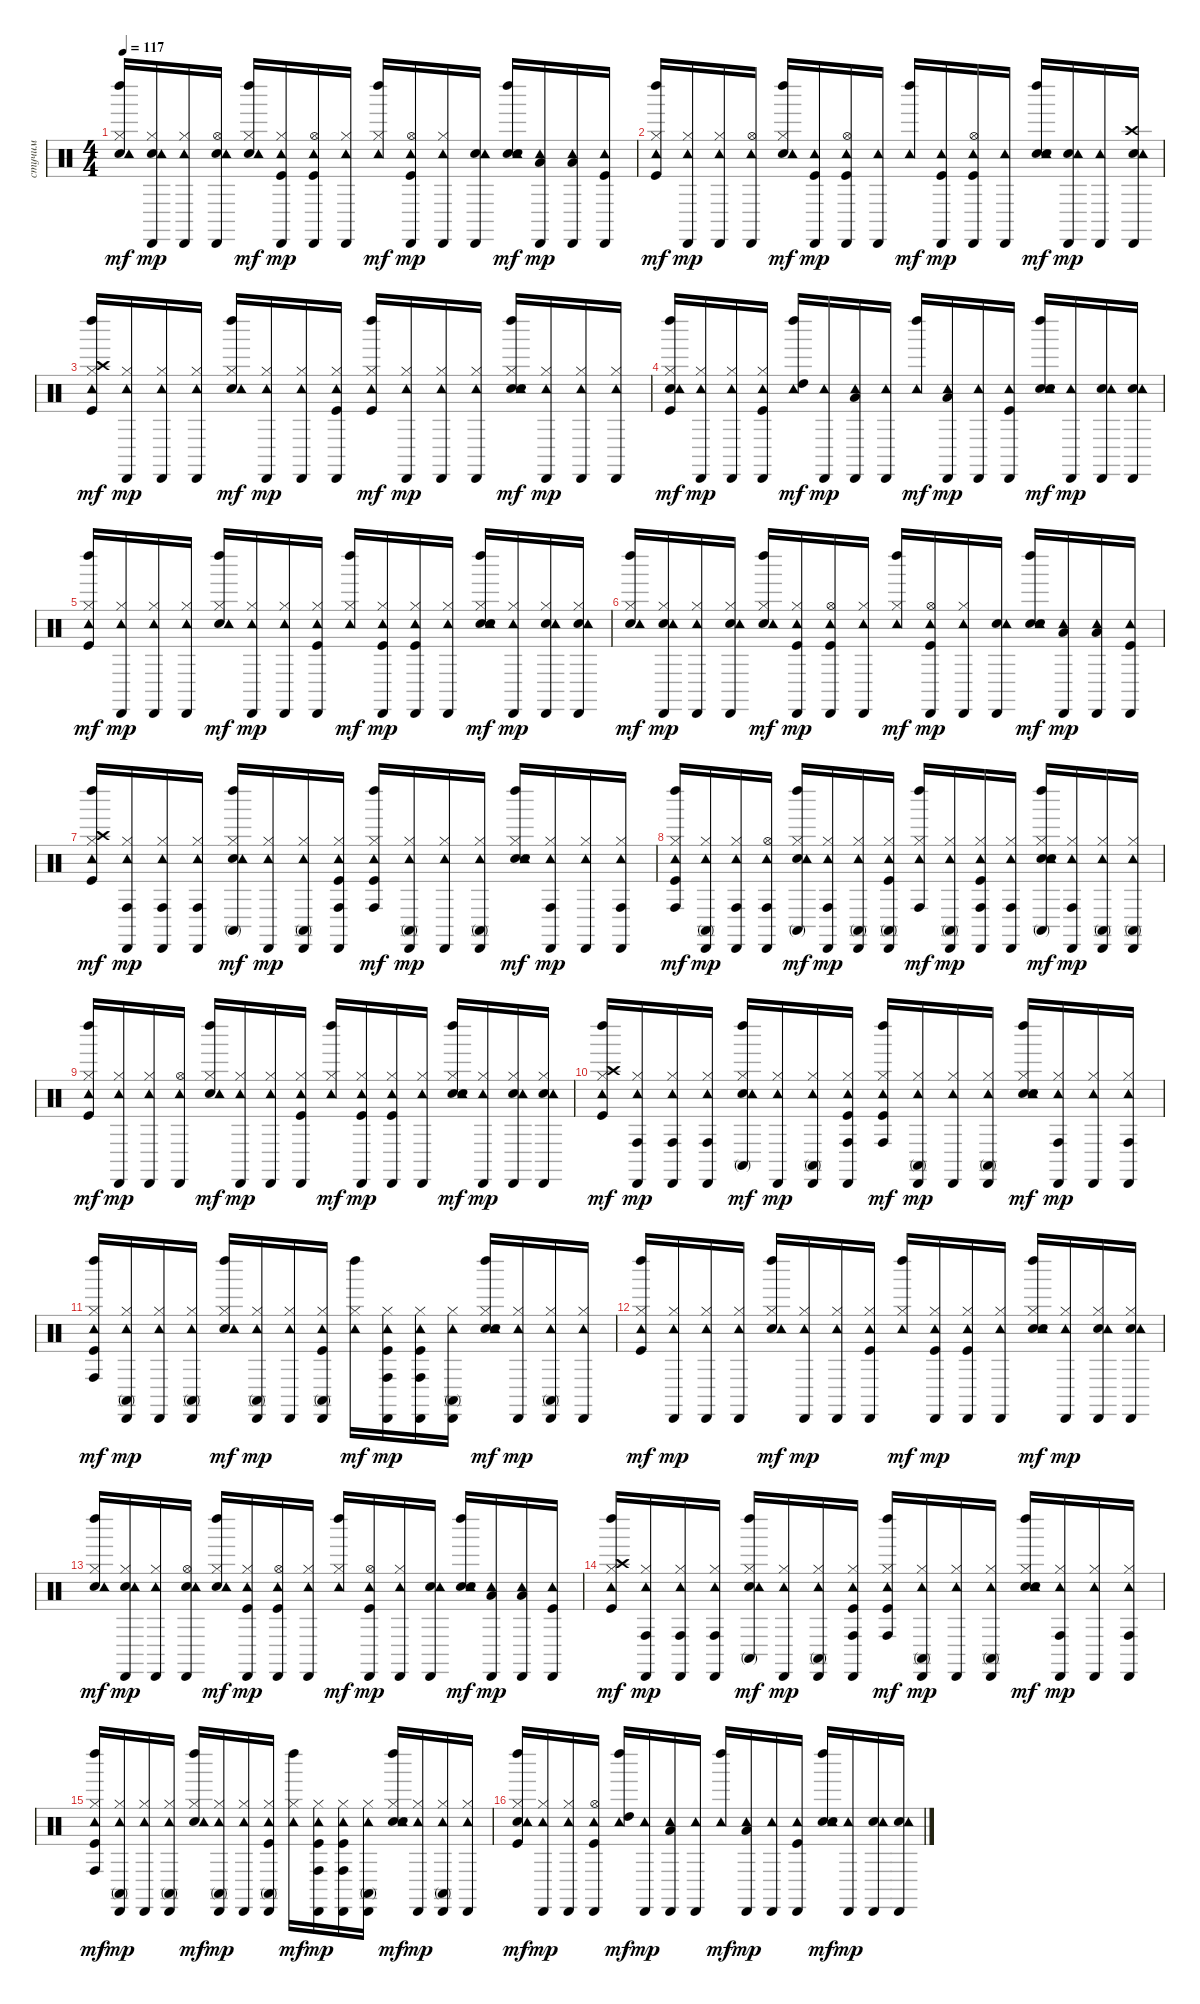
\track ("стучим" "стучим") {instrument percussion}
\staff {score}
\articulation defaults
\ts (4 4)
\tempo 117
\clef neutral
\ks c
("Snare (hit) 2" "Hi-Hat (closed)" "Tambourine (hit)" "Left Maraca (hit)").16{dy mf} ("Snare (hit) 2" "Hi-Hat (closed)" "Tambourine (hit)" "Cabasa (hit)").16{dy mp} ("Hi-Hat (closed)" "Tambourine (hit)" "Cabasa (hit)").16 ("Snare (hit) 2" "Hi-Hat (open)" "Tambourine (hit)" "Cabasa (hit)").16 ("Snare (hit) 2" "Hi-Hat (closed)" "Tambourine (hit)" "Left Maraca (hit)").16{dy mf} ("Kick (hit)" "Hi-Hat (closed)" "Tambourine (hit)" "Cabasa (hit)").16{dy mp} ("Kick (hit)" "Hi-Hat (open)" "Tambourine (hit)" "Cabasa (hit)").16 ("Hi-Hat (closed)" "Tambourine (hit)" "Cabasa (hit)").16 ("Hi-Hat (closed)" "Tambourine (hit)" "Left Maraca (hit)").16{dy mf} ("Kick (hit)" "Hi-Hat (open)" "Tambourine (hit)" "Cabasa (hit)").16{dy mp} ("Hi-Hat (closed)" "Tambourine (hit)" "Cabasa (hit)").16 ("Snare (hit) 2" "Tambourine (hit)" "Cabasa (hit)").16 ("Snare (hit) 2" "Tambourine (hit)" "Hand Clap (hit)" "Left Maraca (hit)").16{dy mf} ("Low Floor Tom (hit)" "Tambourine (hit)" "Cabasa (hit)").16{dy mp} ("Low Floor Tom (hit)" "Tambourine (hit)" "Cabasa (hit)").16 ("Kick (hit)" "Tambourine (hit)" "Cabasa (hit)").16 |
("Kick (hit)" "Hi-Hat (closed)" "Tambourine (hit)" "Left Maraca (hit)").16{dy mf} ("Hi-Hat (closed)" "Tambourine (hit)" "Cabasa (hit)").16{dy mp} ("Hi-Hat (closed)" "Tambourine (hit)" "Cabasa (hit)").16 ("Hi-Hat (open)" "Tambourine (hit)" "Cabasa (hit)").16 ("Snare (hit) 2" "Hi-Hat (closed)" "Tambourine (hit)" "Left Maraca (hit)").16{dy mf} ("Kick (hit)" "Tambourine (hit)" "Cabasa (hit)").16{dy mp} ("Kick (hit)" "Hi-Hat (open)" "Tambourine (hit)" "Cabasa (hit)").16 ("Tambourine (hit)" "Cabasa (hit)").16 ("Tambourine (hit)" "Left Maraca (hit)").16{dy mf} ("Kick (hit)" "Tambourine (hit)" "Cabasa (hit)").16{dy mp} ("Kick (hit)" "Hi-Hat (open)" "Tambourine (hit)" "Cabasa (hit)").16 ("Tambourine (hit)" "Cabasa (hit)").16 ("Snare (hit) 2" "Tambourine (hit)" "Hand Clap (hit)" "Left Maraca (hit)").16{dy mf} ("Snare (hit) 2" "Tambourine (hit)" "Cabasa (hit)").16{dy mp} ("Tambourine (hit)" "Cabasa (hit)").16 ("Snare (hit) 2" "Crash high (hit)" "Tambourine (hit)" "Cabasa (hit)").16 |
("Kick (hit)" "Hi-Hat (closed)" "Crash high (hit)" "Tambourine (hit)" "Left Maraca (hit)").16{dy mf} ("Hi-Hat (closed)" "Tambourine (hit)" "Cabasa (hit)").16{dy mp} ("Hi-Hat (closed)" "Tambourine (hit)" "Cabasa (hit)").16 ("Hi-Hat (closed)" "Tambourine (hit)" "Cabasa (hit)").16 ("Snare (hit) 2" "Hi-Hat (closed)" "Tambourine (hit)" "Left Maraca (hit)").16{dy mf} ("Hi-Hat (closed)" "Tambourine (hit)" "Cabasa (hit)").16{dy mp} ("Hi-Hat (closed)" "Tambourine (hit)" "Cabasa (hit)").16 ("Kick (hit)" "Hi-Hat (closed)" "Tambourine (hit)" "Cabasa (hit)").16 ("Kick (hit)" "Hi-Hat (closed)" "Tambourine (hit)" "Left Maraca (hit)").16{dy mf} ("Hi-Hat (closed)" "Tambourine (hit)" "Cabasa (hit)").16{dy mp} ("Hi-Hat (closed)" "Tambourine (hit)" "Cabasa (hit)").16 ("Hi-Hat (closed)" "Tambourine (hit)" "Cabasa (hit)").16 ("Snare (hit) 2" "Hi-Hat (closed)" "Tambourine (hit)" "Hand Clap (hit)" "Left Maraca (hit)").16{dy mf} ("Hi-Hat (closed)" "Tambourine (hit)" "Cabasa (hit)").16{dy mp} ("Hi-Hat (closed)" "Tambourine (hit)" "Cabasa (hit)").16 ("Hi-Hat (closed)" "Tambourine (hit)" "Cabasa (hit)").16 |
("Kick (hit)" "Snare (hit) 2" "Hi-Hat (closed)" "Tambourine (hit)" "Left Maraca (hit)").16{dy mf} ("Hi-Hat (closed)" "Tambourine (hit)" "Cabasa (hit)").16{dy mp} ("Hi-Hat (closed)" "Tambourine (hit)" "Cabasa (hit)").16 ("Kick (hit)" "Hi-Hat (closed)" "Tambourine (hit)" "Cabasa (hit)").16 ("High Tom (hit)" "Tambourine (hit)" "Left Maraca (hit)").16{dy mf} ("Tambourine (hit)" "Cabasa (hit)").16{dy mp} ("Low Tom (hit)" "Tambourine (hit)" "Cabasa (hit)").16 ("Tambourine (hit)" "Cabasa (hit)").16 ("Tambourine (hit)" "Left Maraca (hit)").16{dy mf} ("Low Floor Tom (hit)" "Tambourine (hit)" "Cabasa (hit)").16{dy mp} ("Tambourine (hit)" "Cabasa (hit)").16 ("Kick (hit)" "Tambourine (hit)" "Cabasa (hit)").16 ("Snare (hit) 2" "Tambourine (hit)" "Hand Clap (hit)" "Left Maraca (hit)").16{dy mf} ("Tambourine (hit)" "Cabasa (hit)").16{dy mp} ("Snare (hit) 2" "Tambourine (hit)" "Cabasa (hit)").16 ("Snare (hit) 2" "Tambourine (hit)" "Cabasa (hit)").16 |
("Kick (hit)" "Hi-Hat (closed)" "Tambourine (hit)" "Left Maraca (hit)").16{dy mf} ("Hi-Hat (closed)" "Tambourine (hit)" "Cabasa (hit)").16{dy mp} ("Hi-Hat (closed)" "Tambourine (hit)" "Cabasa (hit)").16 ("Hi-Hat (closed)" "Tambourine (hit)" "Cabasa (hit)").16 ("Snare (hit) 2" "Hi-Hat (closed)" "Tambourine (hit)" "Left Maraca (hit)").16{dy mf} ("Hi-Hat (closed)" "Tambourine (hit)" "Cabasa (hit)").16{dy mp} ("Hi-Hat (closed)" "Tambourine (hit)" "Cabasa (hit)").16 ("Kick (hit)" "Hi-Hat (closed)" "Tambourine (hit)" "Cabasa (hit)").16 ("Hi-Hat (closed)" "Tambourine (hit)" "Left Maraca (hit)").16{dy mf} ("Kick (hit)" "Hi-Hat (closed)" "Tambourine (hit)" "Cabasa (hit)").16{dy mp} ("Kick (hit)" "Hi-Hat (closed)" "Tambourine (hit)" "Cabasa (hit)").16 ("Hi-Hat (closed)" "Tambourine (hit)" "Cabasa (hit)").16 ("Snare (hit) 2" "Hi-Hat (closed)" "Tambourine (hit)" "Hand Clap (hit)" "Left Maraca (hit)").16{dy mf} ("Hi-Hat (closed)" "Tambourine (hit)" "Cabasa (hit)").16{dy mp} ("Snare (hit) 2" "Hi-Hat (closed)" "Tambourine (hit)" "Cabasa (hit)").16 ("Snare (hit) 2" "Hi-Hat (closed)" "Tambourine (hit)" "Cabasa (hit)").16 |
("Snare (hit) 2" "Hi-Hat (closed)" "Tambourine (hit)" "Left Maraca (hit)").16{dy mf} ("Snare (hit) 2" "Hi-Hat (closed)" "Tambourine (hit)" "Cabasa (hit)").16{dy mp} ("Hi-Hat (closed)" "Tambourine (hit)" "Cabasa (hit)").16 ("Snare (hit) 2" "Hi-Hat (closed)" "Tambourine (hit)" "Cabasa (hit)").16 ("Snare (hit) 2" "Hi-Hat (closed)" "Tambourine (hit)" "Left Maraca (hit)").16{dy mf} ("Kick (hit)" "Hi-Hat (closed)" "Tambourine (hit)" "Cabasa (hit)").16{dy mp} ("Kick (hit)" "Hi-Hat (open)" "Tambourine (hit)" "Cabasa (hit)").16 ("Hi-Hat (closed)" "Tambourine (hit)" "Cabasa (hit)").16 ("Hi-Hat (closed)" "Tambourine (hit)" "Left Maraca (hit)").16{dy mf} ("Kick (hit)" "Hi-Hat (open)" "Tambourine (hit)" "Cabasa (hit)").16{dy mp} ("Hi-Hat (closed)" "Tambourine (hit)" "Cabasa (hit)").16 ("Snare (hit) 2" "Tambourine (hit)" "Cabasa (hit)").16 ("Snare (hit) 2" "Tambourine (hit)" "Hand Clap (hit)" "Left Maraca (hit)").16{dy mf} ("Low Floor Tom (hit)" "Tambourine (hit)" "Cabasa (hit)").16{dy mp} ("Low Floor Tom (hit)" "Tambourine (hit)" "Cabasa (hit)").16 ("Kick (hit)" "Tambourine (hit)" "Cabasa (hit)").16 |
("Kick (hit)" "Hi-Hat (closed)" "Crash high (hit)" "Tambourine (hit)" "Left Maraca (hit)").16{dy mf} ("Hi-Hat (closed)" "Conga high (hit)" "Tambourine (hit)" "Cabasa (hit)").16{dy mp} ("Hi-Hat (closed)" "Conga high (hit)" "Tambourine (hit)" "Cabasa (hit)").16 ("Hi-Hat (closed)" "Conga high (hit)" "Tambourine (hit)" "Cabasa (hit)").16 ("Snare (hit) 2" "Hi-Hat (closed)" "Conga high (mute)" "Tambourine (hit)" "Left Maraca (hit)").16{dy mf} ("Hi-Hat (closed)" "Tambourine (hit)" "Cabasa (hit)").16{dy mp} ("Hi-Hat (closed)" "Conga high (mute)" "Tambourine (hit)" "Cabasa (hit)").16 ("Kick (hit)" "Hi-Hat (closed)" "Conga high (hit)" "Tambourine (hit)" "Cabasa (hit)").16 ("Kick (hit)" "Hi-Hat (closed)" "Conga high (hit)" "Tambourine (hit)" "Left Maraca (hit)").16{dy mf} ("Hi-Hat (closed)" "Conga high (mute)" "Tambourine (hit)" "Cabasa (hit)").16{dy mp} ("Hi-Hat (closed)" "Tambourine (hit)" "Cabasa (hit)").16 ("Hi-Hat (closed)" "Conga high (mute)" "Tambourine (hit)" "Cabasa (hit)").16 ("Snare (hit) 2" "Hi-Hat (closed)" "Tambourine (hit)" "Hand Clap (hit)" "Left Maraca (hit)").16{dy mf} ("Hi-Hat (closed)" "Conga high (hit)" "Tambourine (hit)" "Cabasa (hit)").16{dy mp} ("Hi-Hat (closed)" "Tambourine (hit)" "Cabasa (hit)").16 ("Hi-Hat (closed)" "Conga high (hit)" "Tambourine (hit)" "Cabasa (hit)").16 |
("Kick (hit)" "Hi-Hat (closed)" "Conga high (hit)" "Tambourine (hit)" "Left Maraca (hit)").16{dy mf} ("Hi-Hat (closed)" "Conga high (mute)" "Tambourine (hit)" "Cabasa (hit)").16{dy mp} ("Hi-Hat (closed)" "Conga high (hit)" "Tambourine (hit)" "Cabasa (hit)").16 ("Hi-Hat (open)" "Conga high (hit)" "Tambourine (hit)" "Cabasa (hit)").16 ("Snare (hit) 2" "Hi-Hat (closed)" "Conga high (mute)" "Tambourine (hit)" "Left Maraca (hit)").16{dy mf} ("Hi-Hat (closed)" "Conga high (hit)" "Tambourine (hit)" "Cabasa (hit)").16{dy mp} ("Hi-Hat (closed)" "Conga high (mute)" "Tambourine (hit)" "Cabasa (hit)").16 ("Kick (hit)" "Hi-Hat (closed)" "Conga high (mute)" "Tambourine (hit)" "Cabasa (hit)").16 ("Hi-Hat (closed)" "Conga high (hit)" "Tambourine (hit)" "Left Maraca (hit)").16{dy mf} ("Hi-Hat (closed)" "Conga high (mute)" "Tambourine (hit)" "Cabasa (hit)").16{dy mp} ("Kick (hit)" "Hi-Hat (closed)" "Conga high (hit)" "Tambourine (hit)" "Cabasa (hit)").16 ("Hi-Hat (closed)" "Conga high (hit)" "Tambourine (hit)" "Cabasa (hit)").16 ("Snare (hit) 2" "Hi-Hat (closed)" "Conga high (mute)" "Tambourine (hit)" "Hand Clap (hit)" "Left Maraca (hit)").16{dy mf} ("Hi-Hat (closed)" "Conga high (hit)" "Tambourine (hit)" "Cabasa (hit)").16{dy mp} ("Hi-Hat (closed)" "Conga high (mute)" "Tambourine (hit)" "Cabasa (hit)").16 ("Hi-Hat (closed)" "Conga high (mute)" "Tambourine (hit)" "Cabasa (hit)").16 |
("Kick (hit)" "Hi-Hat (closed)" "Tambourine (hit)" "Left Maraca (hit)").16{dy mf} ("Hi-Hat (closed)" "Tambourine (hit)" "Cabasa (hit)").16{dy mp} ("Hi-Hat (closed)" "Tambourine (hit)" "Cabasa (hit)").16 ("Hi-Hat (open)" "Tambourine (hit)" "Cabasa (hit)").16 ("Snare (hit) 2" "Hi-Hat (closed)" "Tambourine (hit)" "Left Maraca (hit)").16{dy mf} ("Hi-Hat (closed)" "Tambourine (hit)" "Cabasa (hit)").16{dy mp} ("Hi-Hat (closed)" "Tambourine (hit)" "Cabasa (hit)").16 ("Kick (hit)" "Hi-Hat (closed)" "Tambourine (hit)" "Cabasa (hit)").16 ("Hi-Hat (closed)" "Tambourine (hit)" "Left Maraca (hit)").16{dy mf} ("Kick (hit)" "Hi-Hat (closed)" "Tambourine (hit)" "Cabasa (hit)").16{dy mp} ("Kick (hit)" "Hi-Hat (closed)" "Tambourine (hit)" "Cabasa (hit)").16 ("Hi-Hat (closed)" "Tambourine (hit)" "Cabasa (hit)").16 ("Snare (hit) 2" "Hi-Hat (closed)" "Tambourine (hit)" "Hand Clap (hit)" "Left Maraca (hit)").16{dy mf} ("Hi-Hat (closed)" "Tambourine (hit)" "Cabasa (hit)").16{dy mp} ("Snare (hit) 2" "Hi-Hat (closed)" "Tambourine (hit)" "Cabasa (hit)").16 ("Snare (hit) 2" "Hi-Hat (closed)" "Tambourine (hit)" "Cabasa (hit)").16 |
("Kick (hit)" "Hi-Hat (closed)" "Crash high (hit)" "Tambourine (hit)" "Left Maraca (hit)").16{dy mf} ("Hi-Hat (closed)" "Conga high (hit)" "Tambourine (hit)" "Cabasa (hit)").16{dy mp} ("Hi-Hat (closed)" "Conga high (hit)" "Tambourine (hit)" "Cabasa (hit)").16 ("Hi-Hat (closed)" "Conga high (hit)" "Tambourine (hit)" "Cabasa (hit)").16 ("Snare (hit) 2" "Hi-Hat (closed)" "Conga high (mute)" "Tambourine (hit)" "Left Maraca (hit)").16{dy mf} ("Hi-Hat (closed)" "Tambourine (hit)" "Cabasa (hit)").16{dy mp} ("Hi-Hat (closed)" "Conga high (mute)" "Tambourine (hit)" "Cabasa (hit)").16 ("Kick (hit)" "Hi-Hat (closed)" "Conga high (hit)" "Tambourine (hit)" "Cabasa (hit)").16 ("Kick (hit)" "Hi-Hat (closed)" "Conga high (hit)" "Tambourine (hit)" "Left Maraca (hit)").16{dy mf} ("Hi-Hat (closed)" "Conga high (mute)" "Tambourine (hit)" "Cabasa (hit)").16{dy mp} ("Hi-Hat (closed)" "Tambourine (hit)" "Cabasa (hit)").16 ("Hi-Hat (closed)" "Conga high (mute)" "Tambourine (hit)" "Cabasa (hit)").16 ("Snare (hit) 2" "Hi-Hat (closed)" "Tambourine (hit)" "Hand Clap (hit)" "Left Maraca (hit)").16{dy mf} ("Hi-Hat (closed)" "Conga high (hit)" "Tambourine (hit)" "Cabasa (hit)").16{dy mp} ("Hi-Hat (closed)" "Tambourine (hit)" "Cabasa (hit)").16 ("Hi-Hat (closed)" "Conga high (hit)" "Tambourine (hit)" "Cabasa (hit)").16 |
("Kick (hit)" "Hi-Hat (closed)" "Conga high (hit)" "Tambourine (hit)" "Left Maraca (hit)").16{dy mf} ("Hi-Hat (closed)" "Conga high (mute)" "Tambourine (hit)" "Cabasa (hit)").16{dy mp} ("Hi-Hat (closed)" "Tambourine (hit)" "Cabasa (hit)").16 ("Hi-Hat (closed)" "Conga high (mute)" "Tambourine (hit)" "Cabasa (hit)").16 ("Snare (hit) 2" "Hi-Hat (closed)" "Tambourine (hit)" "Left Maraca (hit)").16{dy mf} ("Hi-Hat (closed)" "Conga high (mute)" "Tambourine (hit)" "Cabasa (hit)").16{dy mp} ("Hi-Hat (closed)" "Tambourine (hit)" "Cabasa (hit)").16 ("Kick (hit)" "Hi-Hat (closed)" "Conga high (mute)" "Tambourine (hit)" "Cabasa (hit)").16 ("Hi-Hat (closed)" "Tambourine (hit)" "Left Maraca (hit)").16{dy mf} ("Kick (hit)" "Hi-Hat (closed)" "Conga high (hit)" "Tambourine (hit)" "Cabasa (hit)").16{dy mp} ("Kick (hit)" "Hi-Hat (closed)" "Conga high (hit)" "Tambourine (hit)" "Cabasa (hit)").16 ("Hi-Hat (closed)" "Conga high (mute)" "Tambourine (hit)" "Cabasa (hit)").16 ("Snare (hit) 2" "Hi-Hat (closed)" "Tambourine (hit)" "Hand Clap (hit)" "Left Maraca (hit)").16{dy mf} ("Hi-Hat (closed)" "Tambourine (hit)" "Cabasa (hit)").16{dy mp} ("Hi-Hat (closed)" "Conga high (mute)" "Tambourine (hit)" "Cabasa (hit)").16 ("Hi-Hat (closed)" "Tambourine (hit)" "Cabasa (hit)").16 |
("Kick (hit)" "Hi-Hat (closed)" "Tambourine (hit)" "Left Maraca (hit)").16{dy mf} ("Hi-Hat (closed)" "Tambourine (hit)" "Cabasa (hit)").16{dy mp} ("Hi-Hat (closed)" "Tambourine (hit)" "Cabasa (hit)").16 ("Hi-Hat (closed)" "Tambourine (hit)" "Cabasa (hit)").16 ("Snare (hit) 2" "Hi-Hat (closed)" "Tambourine (hit)" "Left Maraca (hit)").16{dy mf} ("Hi-Hat (closed)" "Tambourine (hit)" "Cabasa (hit)").16{dy mp} ("Hi-Hat (closed)" "Tambourine (hit)" "Cabasa (hit)").16 ("Kick (hit)" "Hi-Hat (closed)" "Tambourine (hit)" "Cabasa (hit)").16 ("Hi-Hat (closed)" "Tambourine (hit)" "Left Maraca (hit)").16{dy mf} ("Kick (hit)" "Hi-Hat (closed)" "Tambourine (hit)" "Cabasa (hit)").16{dy mp} ("Kick (hit)" "Hi-Hat (closed)" "Tambourine (hit)" "Cabasa (hit)").16 ("Hi-Hat (closed)" "Tambourine (hit)" "Cabasa (hit)").16 ("Snare (hit) 2" "Hi-Hat (closed)" "Tambourine (hit)" "Hand Clap (hit)" "Left Maraca (hit)").16{dy mf} ("Hi-Hat (closed)" "Tambourine (hit)" "Cabasa (hit)").16{dy mp} ("Snare (hit) 2" "Hi-Hat (closed)" "Tambourine (hit)" "Cabasa (hit)").16 ("Snare (hit) 2" "Hi-Hat (closed)" "Tambourine (hit)" "Cabasa (hit)").16 |
("Snare (hit) 2" "Hi-Hat (closed)" "Tambourine (hit)" "Left Maraca (hit)").16{dy mf} ("Snare (hit) 2" "Hi-Hat (closed)" "Tambourine (hit)" "Cabasa (hit)").16{dy mp} ("Hi-Hat (closed)" "Tambourine (hit)" "Cabasa (hit)").16 ("Snare (hit) 2" "Hi-Hat (open)" "Tambourine (hit)" "Cabasa (hit)").16 ("Snare (hit) 2" "Hi-Hat (closed)" "Tambourine (hit)" "Left Maraca (hit)").16{dy mf} ("Kick (hit)" "Hi-Hat (closed)" "Tambourine (hit)" "Cabasa (hit)").16{dy mp} ("Kick (hit)" "Hi-Hat (open)" "Tambourine (hit)" "Cabasa (hit)").16 ("Hi-Hat (closed)" "Tambourine (hit)" "Cabasa (hit)").16 ("Hi-Hat (closed)" "Tambourine (hit)" "Left Maraca (hit)").16{dy mf} ("Kick (hit)" "Hi-Hat (open)" "Tambourine (hit)" "Cabasa (hit)").16{dy mp} ("Hi-Hat (closed)" "Tambourine (hit)" "Cabasa (hit)").16 ("Snare (hit) 2" "Tambourine (hit)" "Cabasa (hit)").16 ("Snare (hit) 2" "Tambourine (hit)" "Hand Clap (hit)" "Left Maraca (hit)").16{dy mf} ("Low Floor Tom (hit)" "Tambourine (hit)" "Cabasa (hit)").16{dy mp} ("Low Floor Tom (hit)" "Tambourine (hit)" "Cabasa (hit)").16 ("Kick (hit)" "Tambourine (hit)" "Cabasa (hit)").16 |
("Kick (hit)" "Hi-Hat (closed)" "Crash high (hit)" "Tambourine (hit)" "Left Maraca (hit)").16{dy mf} ("Hi-Hat (closed)" "Conga high (hit)" "Tambourine (hit)" "Cabasa (hit)").16{dy mp} ("Hi-Hat (closed)" "Conga high (hit)" "Tambourine (hit)" "Cabasa (hit)").16 ("Hi-Hat (closed)" "Conga high (hit)" "Tambourine (hit)" "Cabasa (hit)").16 ("Snare (hit) 2" "Hi-Hat (closed)" "Conga high (mute)" "Tambourine (hit)" "Left Maraca (hit)").16{dy mf} ("Hi-Hat (closed)" "Tambourine (hit)" "Cabasa (hit)").16{dy mp} ("Hi-Hat (closed)" "Conga high (mute)" "Tambourine (hit)" "Cabasa (hit)").16 ("Kick (hit)" "Hi-Hat (closed)" "Conga high (hit)" "Tambourine (hit)" "Cabasa (hit)").16 ("Kick (hit)" "Hi-Hat (closed)" "Conga high (hit)" "Tambourine (hit)" "Left Maraca (hit)").16{dy mf} ("Hi-Hat (closed)" "Conga high (mute)" "Tambourine (hit)" "Cabasa (hit)").16{dy mp} ("Hi-Hat (closed)" "Tambourine (hit)" "Cabasa (hit)").16 ("Hi-Hat (closed)" "Conga high (mute)" "Tambourine (hit)" "Cabasa (hit)").16 ("Snare (hit) 2" "Hi-Hat (closed)" "Tambourine (hit)" "Hand Clap (hit)" "Left Maraca (hit)").16{dy mf} ("Hi-Hat (closed)" "Conga high (hit)" "Tambourine (hit)" "Cabasa (hit)").16{dy mp} ("Hi-Hat (closed)" "Tambourine (hit)" "Cabasa (hit)").16 ("Hi-Hat (closed)" "Conga high (hit)" "Tambourine (hit)" "Cabasa (hit)").16 |
("Kick (hit)" "Hi-Hat (closed)" "Conga high (hit)" "Tambourine (hit)" "Left Maraca (hit)").16{dy mf} ("Hi-Hat (closed)" "Conga high (mute)" "Tambourine (hit)" "Cabasa (hit)").16{dy mp} ("Hi-Hat (closed)" "Tambourine (hit)" "Cabasa (hit)").16 ("Hi-Hat (closed)" "Conga high (mute)" "Tambourine (hit)" "Cabasa (hit)").16 ("Snare (hit) 2" "Hi-Hat (closed)" "Tambourine (hit)" "Left Maraca (hit)").16{dy mf} ("Hi-Hat (closed)" "Conga high (mute)" "Tambourine (hit)" "Cabasa (hit)").16{dy mp} ("Hi-Hat (closed)" "Tambourine (hit)" "Cabasa (hit)").16 ("Kick (hit)" "Hi-Hat (closed)" "Conga high (mute)" "Tambourine (hit)" "Cabasa (hit)").16 ("Hi-Hat (closed)" "Tambourine (hit)" "Left Maraca (hit)").16{dy mf} ("Kick (hit)" "Hi-Hat (closed)" "Conga high (hit)" "Tambourine (hit)" "Cabasa (hit)").16{dy mp} ("Kick (hit)" "Hi-Hat (closed)" "Conga high (hit)" "Tambourine (hit)" "Cabasa (hit)").16 ("Hi-Hat (closed)" "Conga high (mute)" "Tambourine (hit)" "Cabasa (hit)").16 ("Snare (hit) 2" "Hi-Hat (closed)" "Tambourine (hit)" "Hand Clap (hit)" "Left Maraca (hit)").16{dy mf} ("Hi-Hat (closed)" "Tambourine (hit)" "Cabasa (hit)").16{dy mp} ("Hi-Hat (closed)" "Conga high (mute)" "Tambourine (hit)" "Cabasa (hit)").16 ("Hi-Hat (closed)" "Tambourine (hit)" "Cabasa (hit)").16 |
("Kick (hit)" "Snare (hit) 2" "Hi-Hat (closed)" "Tambourine (hit)" "Left Maraca (hit)").16{dy mf} ("Hi-Hat (closed)" "Tambourine (hit)" "Cabasa (hit)").16{dy mp} ("Hi-Hat (closed)" "Tambourine (hit)" "Cabasa (hit)").16 ("Kick (hit)" "Hi-Hat (open)" "Tambourine (hit)" "Cabasa (hit)").16 ("High Tom (hit)" "Tambourine (hit)" "Left Maraca (hit)").16{dy mf} ("Tambourine (hit)" "Cabasa (hit)").16{dy mp} ("Low Tom (hit)" "Tambourine (hit)" "Cabasa (hit)").16 ("Tambourine (hit)" "Cabasa (hit)").16 ("Tambourine (hit)" "Left Maraca (hit)").16{dy mf} ("Low Floor Tom (hit)" "Tambourine (hit)" "Cabasa (hit)").16{dy mp} ("Tambourine (hit)" "Cabasa (hit)").16 ("Kick (hit)" "Tambourine (hit)" "Cabasa (hit)").16 ("Snare (hit) 2" "Tambourine (hit)" "Hand Clap (hit)" "Left Maraca (hit)").16{dy mf} ("Tambourine (hit)" "Cabasa (hit)").16{dy mp} ("Snare (hit) 2" "Tambourine (hit)" "Cabasa (hit)").16 ("Snare (hit) 2" "Tambourine (hit)" "Cabasa (hit)").16
